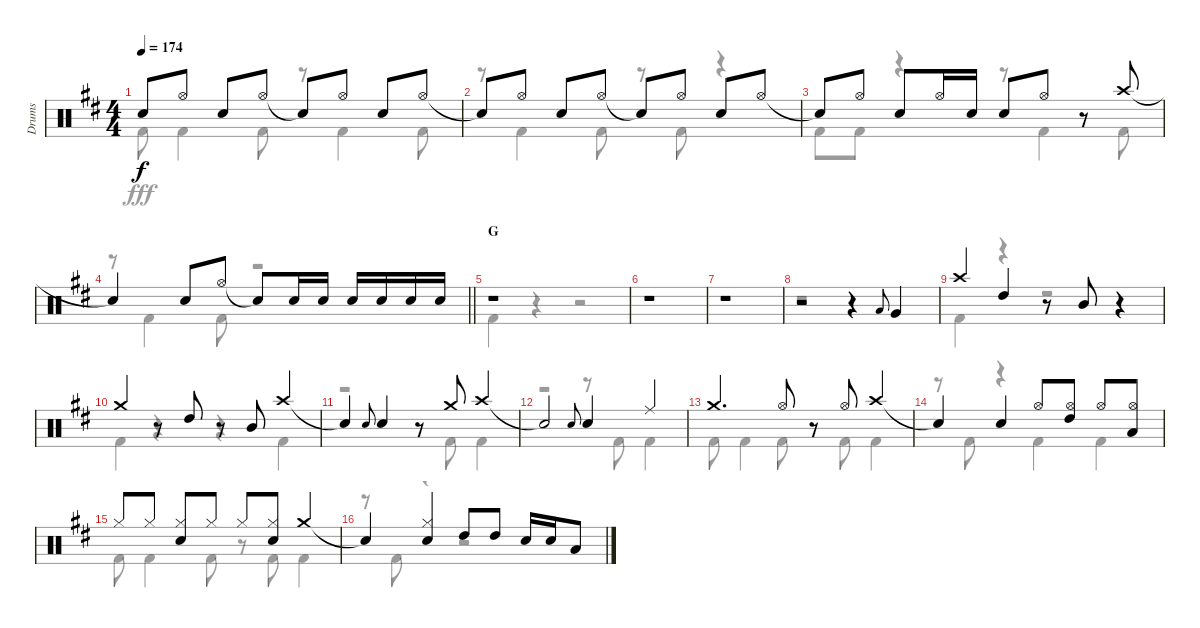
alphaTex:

\track ("Drums" "Drums") {instrument percussion}
\staff {score}
\articulation defaults
\voice
\ts (4 4)
\tempo 174
\clef neutral
\ks bminor "Snare (hit)"{t}.8{dy f} "Hi-Hat (open)".8 "Snare (hit) 2".8 "Hi-Hat (open)".8 "Snare (hit)"{t}.8 "Hi-Hat (open)".8 "Snare (hit) 2".8 "Hi-Hat (open)".8
|
"Snare (hit)"{t}.8 "Hi-Hat (open)".8 "Snare (hit) 2".8 "Hi-Hat (open)".8 "Snare (hit)"{t}.8 "Hi-Hat (open)".8 "Snare (hit) 2".8 "Hi-Hat (open)".8 |
"Snare (hit)"{t}.8 "Hi-Hat (open)".8 "Snare (hit) 2".8 "Hi-Hat (open)".16 "Snare (hit) 2".16 "Snare (hit) 2".8 "Hi-Hat (open)".8 r.8 "Crash high (hit)".8 |
\barLineRight lightlight "Snare (hit)"{t}.4 "Snare (hit) 2".8 "Hi-Hat (open)".8 "Snare (hit)"{t}.8 "Snare (hit) 2".16 "Snare (hit) 2".16 "Snare (hit) 2".16 "Snare (hit) 2".16 "Snare (hit) 2".16 "Snare (hit) 2".16
|
\section ("" "G")
r.1 |
r.1 |
r.1 |
r.2 r.4 "Low Tom (hit)".8{gr onbeat} "Very Low Tom (hit)".4 |
"Crash high (hit)".4 "High Tom (hit)".4 r.8 "Mid Tom (hit)".8 r.4 |
"Crash medium (hit)".4 r.8 "High Tom (hit)".8 r.8 "Mid Tom (hit)".8 "Crash high (hit)".4 |
"Snare (hit)"{t}.4 "Snare (hit) 2".8{gr onbeat} "Snare (hit) 2".4 r.8 "Crash medium (hit)".8 "Crash high (hit)".4 |
"Snare (hit)"{t}.2 "Snare (hit) 2".8{gr onbeat} "Snare (hit) 2".4 "Ride (middle)".4 |
"Crash medium (hit)".4{d} "Hi-Hat (open)".8 r.8 "Hi-Hat (open)".8 "Crash high (hit)".4 |
"Snare (hit)"{t}.4 "Snare (hit) 2".4 "Hi-Hat (open)".8 ("Hi-Hat (open)" "High Tom (hit)").8 "Hi-Hat (open)".8 ("Hi-Hat (open)" "Low Tom (hit)").8 |
"Hi-Hat (closed)".8 "Hi-Hat (closed)".8 ("Hi-Hat (closed)" "Snare (hit) 2").8 "Hi-Hat (closed)".8 "Hi-Hat (closed)".8 ("Hi-Hat (closed)" "Snare (hit) 2").8 "Crash medium (hit)".4 |
"Snare (hit)"{t}.4 ("Hi-Hat (closed)" "Snare (hit) 2").4 "High Tom (hit)".8 "High Tom (hit)".8 "Snare (hit) 2".16 "Snare (hit) 2".16 "Low Tom (hit)".8
\voice
\clef neutral
\ottava regular
\simile none
\ks bminor "Kick (hit) 2".8{dy fff} "Kick (hit) 2".4 "Kick (hit) 2".8
r.8 "Kick (hit) 2".4 "Kick (hit) 2".8 |
r.8 "Kick (hit) 2".4 "Kick (hit) 2".8 r.8 "Kick (hit) 2".8 r.4 |
"Kick (hit) 2".8 "Kick (hit) 2".8 r.4 r.8 "Kick (hit) 2".4 "Kick (hit) 2".8 |
\barLineRight lightlight
r.8 "Kick (hit) 2".4 "Kick (hit) 2".8 r.2 |
"Kick (hit) 2".4 r.4 r.2 |
r.1 |
r.1 |
r.1 |
"Kick (hit) 2".4 r.4 r.2 |
"Kick (hit) 2".4 r.4 r.4 "Kick (hit) 2".4 |
r.2 r.8 "Kick (hit) 2".8 "Kick (hit) 2".4 |
r.2 r.8 "Kick (hit) 2".8 "Kick (hit) 2".4 |
"Kick (hit) 2".8 "Kick (hit) 2".4 "Kick (hit) 2".8 r.8 "Kick (hit) 2".8 "Kick (hit) 2".4 |
r.8 "Kick (hit) 2".8 r.4 "Kick (hit) 2".4 "Kick (hit) 2".4 |
"Kick (hit) 2".8 "Kick (hit) 2".4 "Kick (hit) 2".8 r.8 "Kick (hit) 2".8 "Kick (hit) 2".4 |
r.8 "Kick (hit) 2".8 r.4 r.2
